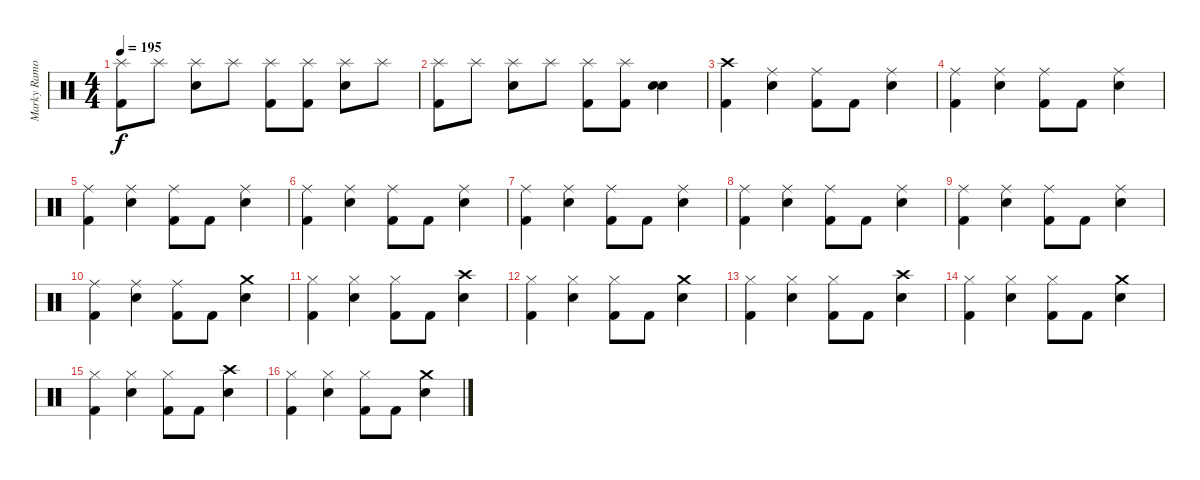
\track ("Marky Ramone" "Marky Ramo") {instrument percussion}
\staff {score}
\articulation defaults
\ts (4 4)
\tempo 195
\clef neutral
\ks c
("Splash (hit)" "Kick (hit) 2").8{dy f} "Splash (hit)".8 ("Splash (hit)" "Snare (hit) 2").8 "Splash (hit)".8 ("Splash (hit)" "Kick (hit) 2").8 ("Splash (hit)" "Kick (hit) 2").8 ("Splash (hit)" "Snare (hit) 2").8 "Splash (hit)".8 |
("Splash (hit)" "Kick (hit) 2").8 "Splash (hit)".8 ("Splash (hit)" "Snare (hit) 2").8 "Splash (hit)".8 ("Splash (hit)" "Kick (hit) 2").8 ("Splash (hit)" "Kick (hit) 2").8 ("Snare (hit) 2" "Snare (hit) 2").4 |
("Crash high (hit)" "Kick (hit) 2").4 ("Ride (middle)" "Snare (hit) 2").4 ("Ride (middle)" "Kick (hit) 2").8 "Kick (hit) 2".8 ("Ride (middle)" "Snare (hit) 2").4 |
("Ride (middle)" "Kick (hit) 2").4 ("Ride (middle)" "Snare (hit) 2").4 ("Ride (middle)" "Kick (hit) 2").8 "Kick (hit) 2".8 ("Ride (middle)" "Snare (hit) 2").4 |
("Ride (middle)" "Kick (hit) 2").4 ("Ride (middle)" "Snare (hit) 2").4 ("Ride (middle)" "Kick (hit) 2").8 "Kick (hit) 2".8 ("Ride (middle)" "Snare (hit) 2").4 |
("Ride (middle)" "Kick (hit) 2").4 ("Ride (middle)" "Snare (hit) 2").4 ("Ride (middle)" "Kick (hit) 2").8 "Kick (hit) 2".8 ("Ride (middle)" "Snare (hit) 2").4 |
("Ride (middle)" "Kick (hit) 2").4 ("Ride (middle)" "Snare (hit) 2").4 ("Ride (middle)" "Kick (hit) 2").8 "Kick (hit) 2".8 ("Ride (middle)" "Snare (hit) 2").4 |
("Ride (middle)" "Kick (hit) 2").4 ("Ride (middle)" "Snare (hit) 2").4 ("Ride (middle)" "Kick (hit) 2").8 "Kick (hit) 2".8 ("Ride (middle)" "Snare (hit) 2").4 |
("Ride (middle)" "Kick (hit) 2").4 ("Ride (middle)" "Snare (hit) 2").4 ("Ride (middle)" "Kick (hit) 2").8 "Kick (hit) 2".8 ("Ride (middle)" "Snare (hit) 2").4 |
("Ride (middle)" "Kick (hit) 2").4 ("Ride (middle)" "Snare (hit) 2").4 ("Ride (middle)" "Kick (hit) 2").8 "Kick (hit) 2".8 ("Crash medium (hit)" "Snare (hit) 2").4 |
("Hi-Hat (closed)" "Kick (hit) 2").4 ("Hi-Hat (closed)" "Snare (hit) 2").4 ("Hi-Hat (closed)" "Kick (hit) 2").8 "Kick (hit) 2".8 ("Crash high (hit)" "Snare (hit) 2").4 |
("Hi-Hat (closed)" "Kick (hit) 2").4 ("Hi-Hat (closed)" "Snare (hit) 2").4 ("Hi-Hat (closed)" "Kick (hit) 2").8 "Kick (hit) 2".8 ("Crash medium (hit)" "Snare (hit) 2").4 |
("Hi-Hat (closed)" "Kick (hit) 2").4 ("Hi-Hat (closed)" "Snare (hit) 2").4 ("Hi-Hat (closed)" "Kick (hit) 2").8 "Kick (hit) 2".8 ("Crash high (hit)" "Snare (hit) 2").4 |
("Hi-Hat (closed)" "Kick (hit) 2").4 ("Hi-Hat (closed)" "Snare (hit) 2").4 ("Hi-Hat (closed)" "Kick (hit) 2").8 "Kick (hit) 2".8 ("Crash medium (hit)" "Snare (hit) 2").4 |
("Hi-Hat (closed)" "Kick (hit) 2").4 ("Hi-Hat (closed)" "Snare (hit) 2").4 ("Hi-Hat (closed)" "Kick (hit) 2").8 "Kick (hit) 2".8 ("Crash high (hit)" "Snare (hit) 2").4 |
("Hi-Hat (closed)" "Kick (hit) 2").4 ("Hi-Hat (closed)" "Snare (hit) 2").4 ("Hi-Hat (closed)" "Kick (hit) 2").8 "Kick (hit) 2".8 ("Crash medium (hit)" "Snare (hit) 2").4
